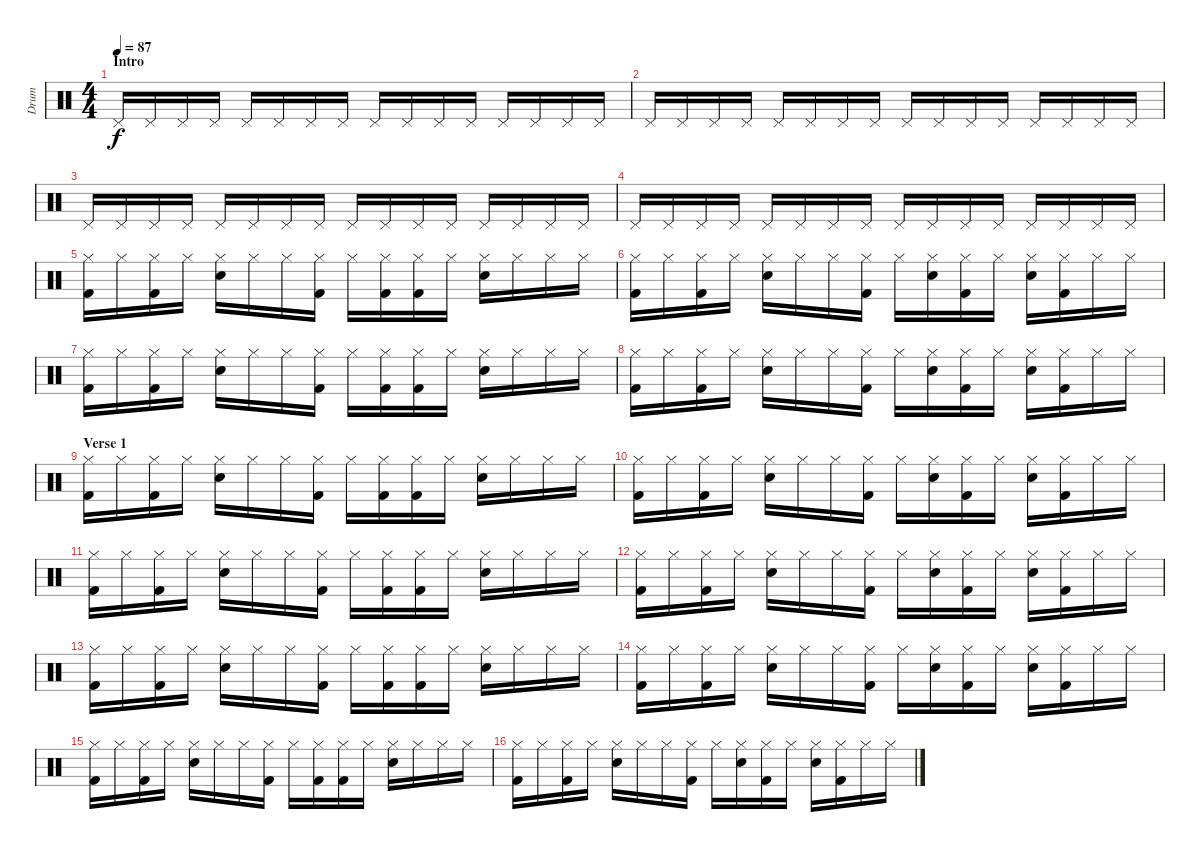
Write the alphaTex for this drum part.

\track ("Drum" "Drum") {instrument percussion}
\staff {score}
\articulation defaults
\ts (4 4)
\section ("" "Intro")
\tempo 87
\clef neutral
\ks c "Pedal Hi-Hat (hit)".16{dy f volume 9} "Pedal Hi-Hat (hit)".16 "Pedal Hi-Hat (hit)".16 "Pedal Hi-Hat (hit)".16 "Pedal Hi-Hat (hit)".16 "Pedal Hi-Hat (hit)".16 "Pedal Hi-Hat (hit)".16 "Pedal Hi-Hat (hit)".16 "Pedal Hi-Hat (hit)".16 "Pedal Hi-Hat (hit)".16 "Pedal Hi-Hat (hit)".16 "Pedal Hi-Hat (hit)".16 "Pedal Hi-Hat (hit)".16 "Pedal Hi-Hat (hit)".16 "Pedal Hi-Hat (hit)".16 "Pedal Hi-Hat (hit)".16
|
"Pedal Hi-Hat (hit)".16 "Pedal Hi-Hat (hit)".16 "Pedal Hi-Hat (hit)".16 "Pedal Hi-Hat (hit)".16 "Pedal Hi-Hat (hit)".16 "Pedal Hi-Hat (hit)".16 "Pedal Hi-Hat (hit)".16 "Pedal Hi-Hat (hit)".16 "Pedal Hi-Hat (hit)".16 "Pedal Hi-Hat (hit)".16 "Pedal Hi-Hat (hit)".16 "Pedal Hi-Hat (hit)".16 "Pedal Hi-Hat (hit)".16 "Pedal Hi-Hat (hit)".16 "Pedal Hi-Hat (hit)".16 "Pedal Hi-Hat (hit)".16 |
"Pedal Hi-Hat (hit)".16 "Pedal Hi-Hat (hit)".16 "Pedal Hi-Hat (hit)".16 "Pedal Hi-Hat (hit)".16 "Pedal Hi-Hat (hit)".16 "Pedal Hi-Hat (hit)".16 "Pedal Hi-Hat (hit)".16 "Pedal Hi-Hat (hit)".16 "Pedal Hi-Hat (hit)".16 "Pedal Hi-Hat (hit)".16 "Pedal Hi-Hat (hit)".16 "Pedal Hi-Hat (hit)".16 "Pedal Hi-Hat (hit)".16 "Pedal Hi-Hat (hit)".16 "Pedal Hi-Hat (hit)".16 "Pedal Hi-Hat (hit)".16 |
"Pedal Hi-Hat (hit)".16 "Pedal Hi-Hat (hit)".16 "Pedal Hi-Hat (hit)".16 "Pedal Hi-Hat (hit)".16 "Pedal Hi-Hat (hit)".16 "Pedal Hi-Hat (hit)".16 "Pedal Hi-Hat (hit)".16 "Pedal Hi-Hat (hit)".16 "Pedal Hi-Hat (hit)".16 "Pedal Hi-Hat (hit)".16 "Pedal Hi-Hat (hit)".16 "Pedal Hi-Hat (hit)".16 "Pedal Hi-Hat (hit)".16 "Pedal Hi-Hat (hit)".16 "Pedal Hi-Hat (hit)".16 "Pedal Hi-Hat (hit)".16 |
("Hi-Hat (closed)" "Kick (hit) 2").16{volume 12} "Hi-Hat (closed)".16 ("Hi-Hat (closed)" "Kick (hit) 2").16 "Hi-Hat (closed)".16 ("Hi-Hat (closed)" "Snare (hit) 2").16 "Hi-Hat (closed)".16 "Hi-Hat (closed)".16 ("Hi-Hat (closed)" "Kick (hit) 2").16 "Hi-Hat (closed)".16 ("Hi-Hat (closed)" "Kick (hit) 2").16 ("Hi-Hat (closed)" "Kick (hit) 2").16 "Hi-Hat (closed)".16 ("Hi-Hat (closed)" "Snare (hit) 2").16 "Hi-Hat (closed)".16 "Hi-Hat (closed)".16 "Hi-Hat (closed)".16 |
("Hi-Hat (closed)" "Kick (hit) 2").16 "Hi-Hat (closed)".16 ("Hi-Hat (closed)" "Kick (hit) 2").16 "Hi-Hat (closed)".16 ("Hi-Hat (closed)" "Snare (hit) 2").16 "Hi-Hat (closed)".16 "Hi-Hat (closed)".16 ("Hi-Hat (closed)" "Kick (hit) 2").16 "Hi-Hat (closed)".16 ("Hi-Hat (closed)" "Snare (hit) 2").16 ("Hi-Hat (closed)" "Kick (hit) 2").16 "Hi-Hat (closed)".16 ("Hi-Hat (closed)" "Snare (hit) 2").16 ("Hi-Hat (closed)" "Kick (hit) 2").16 "Hi-Hat (closed)".16 "Hi-Hat (closed)".16 |
("Hi-Hat (closed)" "Kick (hit) 2").16 "Hi-Hat (closed)".16 ("Hi-Hat (closed)" "Kick (hit) 2").16 "Hi-Hat (closed)".16 ("Hi-Hat (closed)" "Snare (hit) 2").16 "Hi-Hat (closed)".16 "Hi-Hat (closed)".16 ("Hi-Hat (closed)" "Kick (hit) 2").16 "Hi-Hat (closed)".16 ("Hi-Hat (closed)" "Kick (hit) 2").16 ("Hi-Hat (closed)" "Kick (hit) 2").16 "Hi-Hat (closed)".16 ("Hi-Hat (closed)" "Snare (hit) 2").16 "Hi-Hat (closed)".16 "Hi-Hat (closed)".16 "Hi-Hat (closed)".16 |
("Hi-Hat (closed)" "Kick (hit) 2").16 "Hi-Hat (closed)".16 ("Hi-Hat (closed)" "Kick (hit) 2").16 "Hi-Hat (closed)".16 ("Hi-Hat (closed)" "Snare (hit) 2").16 "Hi-Hat (closed)".16 "Hi-Hat (closed)".16 ("Hi-Hat (closed)" "Kick (hit) 2").16 "Hi-Hat (closed)".16 ("Hi-Hat (closed)" "Snare (hit) 2").16 ("Hi-Hat (closed)" "Kick (hit) 2").16 "Hi-Hat (closed)".16 ("Hi-Hat (closed)" "Snare (hit) 2").16 ("Hi-Hat (closed)" "Kick (hit) 2").16 "Hi-Hat (closed)".16 "Hi-Hat (closed)".16 |
\section ("" "Verse 1")
("Hi-Hat (closed)" "Kick (hit) 2").16 "Hi-Hat (closed)".16 ("Hi-Hat (closed)" "Kick (hit) 2").16 "Hi-Hat (closed)".16 ("Hi-Hat (closed)" "Snare (hit) 2").16 "Hi-Hat (closed)".16 "Hi-Hat (closed)".16 ("Hi-Hat (closed)" "Kick (hit) 2").16 "Hi-Hat (closed)".16 ("Hi-Hat (closed)" "Kick (hit) 2").16 ("Hi-Hat (closed)" "Kick (hit) 2").16 "Hi-Hat (closed)".16 ("Hi-Hat (closed)" "Snare (hit) 2").16 "Hi-Hat (closed)".16 "Hi-Hat (closed)".16 "Hi-Hat (closed)".16 |
("Hi-Hat (closed)" "Kick (hit) 2").16 "Hi-Hat (closed)".16 ("Hi-Hat (closed)" "Kick (hit) 2").16 "Hi-Hat (closed)".16 ("Hi-Hat (closed)" "Snare (hit) 2").16 "Hi-Hat (closed)".16 "Hi-Hat (closed)".16 ("Hi-Hat (closed)" "Kick (hit) 2").16 "Hi-Hat (closed)".16 ("Hi-Hat (closed)" "Snare (hit) 2").16 ("Hi-Hat (closed)" "Kick (hit) 2").16 "Hi-Hat (closed)".16 ("Hi-Hat (closed)" "Snare (hit) 2").16 ("Hi-Hat (closed)" "Kick (hit) 2").16 "Hi-Hat (closed)".16 "Hi-Hat (closed)".16 |
("Hi-Hat (closed)" "Kick (hit) 2").16 "Hi-Hat (closed)".16 ("Hi-Hat (closed)" "Kick (hit) 2").16 "Hi-Hat (closed)".16 ("Hi-Hat (closed)" "Snare (hit) 2").16 "Hi-Hat (closed)".16 "Hi-Hat (closed)".16 ("Hi-Hat (closed)" "Kick (hit) 2").16 "Hi-Hat (closed)".16 ("Hi-Hat (closed)" "Kick (hit) 2").16 ("Hi-Hat (closed)" "Kick (hit) 2").16 "Hi-Hat (closed)".16 ("Hi-Hat (closed)" "Snare (hit) 2").16 "Hi-Hat (closed)".16 "Hi-Hat (closed)".16 "Hi-Hat (closed)".16 |
("Hi-Hat (closed)" "Kick (hit) 2").16 "Hi-Hat (closed)".16 ("Hi-Hat (closed)" "Kick (hit) 2").16 "Hi-Hat (closed)".16 ("Hi-Hat (closed)" "Snare (hit) 2").16 "Hi-Hat (closed)".16 "Hi-Hat (closed)".16 ("Hi-Hat (closed)" "Kick (hit) 2").16 "Hi-Hat (closed)".16 ("Hi-Hat (closed)" "Snare (hit) 2").16 ("Hi-Hat (closed)" "Kick (hit) 2").16 "Hi-Hat (closed)".16 ("Hi-Hat (closed)" "Snare (hit) 2").16 ("Hi-Hat (closed)" "Kick (hit) 2").16 "Hi-Hat (closed)".16 "Hi-Hat (closed)".16 |
("Hi-Hat (closed)" "Kick (hit) 2").16 "Hi-Hat (closed)".16 ("Hi-Hat (closed)" "Kick (hit) 2").16 "Hi-Hat (closed)".16 ("Hi-Hat (closed)" "Snare (hit) 2").16 "Hi-Hat (closed)".16 "Hi-Hat (closed)".16 ("Hi-Hat (closed)" "Kick (hit) 2").16 "Hi-Hat (closed)".16 ("Hi-Hat (closed)" "Kick (hit) 2").16 ("Hi-Hat (closed)" "Kick (hit) 2").16 "Hi-Hat (closed)".16 ("Hi-Hat (closed)" "Snare (hit) 2").16 "Hi-Hat (closed)".16 "Hi-Hat (closed)".16 "Hi-Hat (closed)".16 |
("Hi-Hat (closed)" "Kick (hit) 2").16 "Hi-Hat (closed)".16 ("Hi-Hat (closed)" "Kick (hit) 2").16 "Hi-Hat (closed)".16 ("Hi-Hat (closed)" "Snare (hit) 2").16 "Hi-Hat (closed)".16 "Hi-Hat (closed)".16 ("Hi-Hat (closed)" "Kick (hit) 2").16 "Hi-Hat (closed)".16 ("Hi-Hat (closed)" "Snare (hit) 2").16 ("Hi-Hat (closed)" "Kick (hit) 2").16 "Hi-Hat (closed)".16 ("Hi-Hat (closed)" "Snare (hit) 2").16 ("Hi-Hat (closed)" "Kick (hit) 2").16 "Hi-Hat (closed)".16 "Hi-Hat (closed)".16 |
("Hi-Hat (closed)" "Kick (hit) 2").16 "Hi-Hat (closed)".16 ("Hi-Hat (closed)" "Kick (hit) 2").16 "Hi-Hat (closed)".16 ("Hi-Hat (closed)" "Snare (hit) 2").16 "Hi-Hat (closed)".16 "Hi-Hat (closed)".16 ("Hi-Hat (closed)" "Kick (hit) 2").16 "Hi-Hat (closed)".16 ("Hi-Hat (closed)" "Kick (hit) 2").16 ("Hi-Hat (closed)" "Kick (hit) 2").16 "Hi-Hat (closed)".16 ("Hi-Hat (closed)" "Snare (hit) 2").16 "Hi-Hat (closed)".16 "Hi-Hat (closed)".16 "Hi-Hat (closed)".16 |
("Hi-Hat (closed)" "Kick (hit) 2").16 "Hi-Hat (closed)".16 ("Hi-Hat (closed)" "Kick (hit) 2").16 "Hi-Hat (closed)".16 ("Hi-Hat (closed)" "Snare (hit) 2").16 "Hi-Hat (closed)".16 "Hi-Hat (closed)".16 ("Hi-Hat (closed)" "Kick (hit) 2").16 "Hi-Hat (closed)".16 ("Hi-Hat (closed)" "Snare (hit) 2").16 ("Hi-Hat (closed)" "Kick (hit) 2").16 "Hi-Hat (closed)".16 ("Hi-Hat (closed)" "Snare (hit) 2").16 ("Hi-Hat (closed)" "Kick (hit) 2").16 "Hi-Hat (closed)".16 "Hi-Hat (closed)".16
